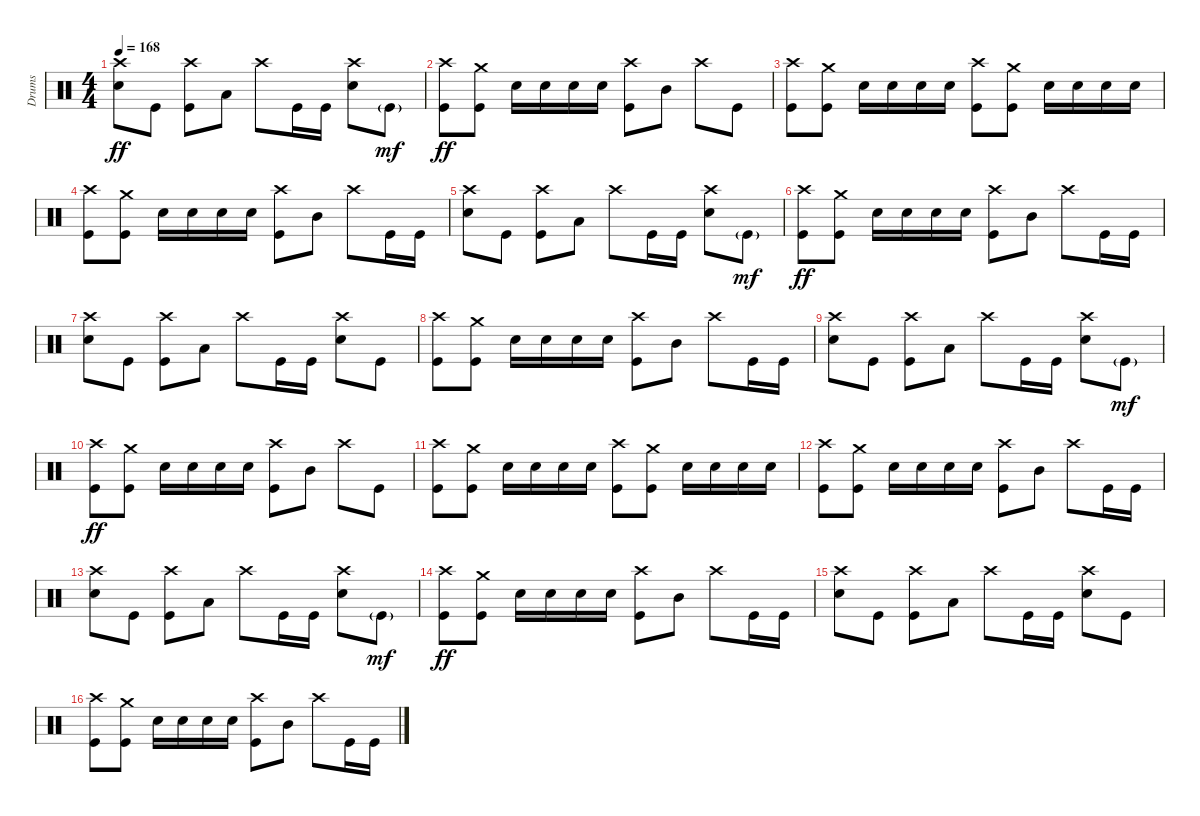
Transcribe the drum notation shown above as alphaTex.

\track ("Drums" "Drums") {instrument percussion}
\staff {score}
\articulation defaults
\ts (4 4)
\tempo 168
\clef neutral
\ks c
("Crash high (hit)" "Snare (hit) 2").8{dy ff} "Kick (hit)".8 ("Crash high (hit)" "Kick (hit)").8 "Low Floor Tom (hit)".8 "Crash high (hit)".8 "Kick (hit)".16 "Kick (hit)".16 ("Crash high (hit)" "Snare (hit) 2").8 "Kick (hit)"{g}.8{dy mf} |
("Crash high (hit)" "Kick (hit)").8{dy ff} ("Crash medium (hit)" "Kick (hit)").8 "Snare (hit) 2".16 "Snare (hit) 2".16 "Snare (hit) 2".16 "Snare (hit) 2".16 ("Crash high (hit)" "Kick (hit)").8 "Mid Tom (hit)".8 "Crash high (hit)".8 "Kick (hit)".8 |
("Crash high (hit)" "Kick (hit)").8 ("Crash medium (hit)" "Kick (hit)").8 "Snare (hit) 2".16 "Snare (hit) 2".16 "Snare (hit) 2".16 "Snare (hit) 2".16 ("Crash high (hit)" "Kick (hit)").8 ("Crash medium (hit)" "Kick (hit)").8 "Snare (hit) 2".16 "Snare (hit) 2".16 "Snare (hit) 2".16 "Snare (hit) 2".16 |
("Crash high (hit)" "Kick (hit)").8 ("Crash medium (hit)" "Kick (hit)").8 "Snare (hit) 2".16 "Snare (hit) 2".16 "Snare (hit) 2".16 "Snare (hit) 2".16 ("Crash high (hit)" "Kick (hit)").8 "Mid Tom (hit)".8 "Crash high (hit)".8 "Kick (hit)".16 "Kick (hit)".16 |
("Crash high (hit)" "Snare (hit) 2").8 "Kick (hit)".8 ("Crash high (hit)" "Kick (hit)").8 "Low Floor Tom (hit)".8 "Crash high (hit)".8 "Kick (hit)".16 "Kick (hit)".16 ("Crash high (hit)" "Snare (hit) 2").8 "Kick (hit)"{g}.8{dy mf} |
("Crash high (hit)" "Kick (hit)").8{dy ff} ("Crash medium (hit)" "Kick (hit)").8 "Snare (hit) 2".16 "Snare (hit) 2".16 "Snare (hit) 2".16 "Snare (hit) 2".16 ("Crash high (hit)" "Kick (hit)").8 "Mid Tom (hit)".8 "Crash high (hit)".8 "Kick (hit)".16 "Kick (hit)".16 |
("Crash high (hit)" "Snare (hit) 2").8 "Kick (hit)".8 ("Crash high (hit)" "Kick (hit)").8 "Low Floor Tom (hit)".8 "Crash high (hit)".8 "Kick (hit)".16 "Kick (hit)".16 ("Crash high (hit)" "Snare (hit) 2").8 "Kick (hit)".8 |
("Crash high (hit)" "Kick (hit)").8 ("Crash medium (hit)" "Kick (hit)").8 "Snare (hit) 2".16 "Snare (hit) 2".16 "Snare (hit) 2".16 "Snare (hit) 2".16 ("Crash high (hit)" "Kick (hit)").8 "Mid Tom (hit)".8 "Crash high (hit)".8 "Kick (hit)".16 "Kick (hit)".16 |
("Crash high (hit)" "Snare (hit) 2").8 "Kick (hit)".8 ("Crash high (hit)" "Kick (hit)").8 "Low Floor Tom (hit)".8 "Crash high (hit)".8 "Kick (hit)".16 "Kick (hit)".16 ("Crash high (hit)" "Snare (hit) 2").8 "Kick (hit)"{g}.8{dy mf} |
("Crash high (hit)" "Kick (hit)").8{dy ff} ("Crash medium (hit)" "Kick (hit)").8 "Snare (hit) 2".16 "Snare (hit) 2".16 "Snare (hit) 2".16 "Snare (hit) 2".16 ("Crash high (hit)" "Kick (hit)").8 "Mid Tom (hit)".8 "Crash high (hit)".8 "Kick (hit)".8 |
("Crash high (hit)" "Kick (hit)").8 ("Crash medium (hit)" "Kick (hit)").8 "Snare (hit) 2".16 "Snare (hit) 2".16 "Snare (hit) 2".16 "Snare (hit) 2".16 ("Crash high (hit)" "Kick (hit)").8 ("Crash medium (hit)" "Kick (hit)").8 "Snare (hit) 2".16 "Snare (hit) 2".16 "Snare (hit) 2".16 "Snare (hit) 2".16 |
("Crash high (hit)" "Kick (hit)").8 ("Crash medium (hit)" "Kick (hit)").8 "Snare (hit) 2".16 "Snare (hit) 2".16 "Snare (hit) 2".16 "Snare (hit) 2".16 ("Crash high (hit)" "Kick (hit)").8 "Mid Tom (hit)".8 "Crash high (hit)".8 "Kick (hit)".16 "Kick (hit)".16 |
("Crash high (hit)" "Snare (hit) 2").8 "Kick (hit)".8 ("Crash high (hit)" "Kick (hit)").8 "Low Floor Tom (hit)".8 "Crash high (hit)".8 "Kick (hit)".16 "Kick (hit)".16 ("Crash high (hit)" "Snare (hit) 2").8 "Kick (hit)"{g}.8{dy mf} |
("Crash high (hit)" "Kick (hit)").8{dy ff} ("Crash medium (hit)" "Kick (hit)").8 "Snare (hit) 2".16 "Snare (hit) 2".16 "Snare (hit) 2".16 "Snare (hit) 2".16 ("Crash high (hit)" "Kick (hit)").8 "Mid Tom (hit)".8 "Crash high (hit)".8 "Kick (hit)".16 "Kick (hit)".16 |
("Crash high (hit)" "Snare (hit) 2").8 "Kick (hit)".8 ("Crash high (hit)" "Kick (hit)").8 "Low Floor Tom (hit)".8 "Crash high (hit)".8 "Kick (hit)".16 "Kick (hit)".16 ("Crash high (hit)" "Snare (hit) 2").8 "Kick (hit)".8 |
("Crash high (hit)" "Kick (hit)").8 ("Crash medium (hit)" "Kick (hit)").8 "Snare (hit) 2".16 "Snare (hit) 2".16 "Snare (hit) 2".16 "Snare (hit) 2".16 ("Crash high (hit)" "Kick (hit)").8 "Mid Tom (hit)".8 "Crash high (hit)".8 "Kick (hit)".16 "Kick (hit)".16
